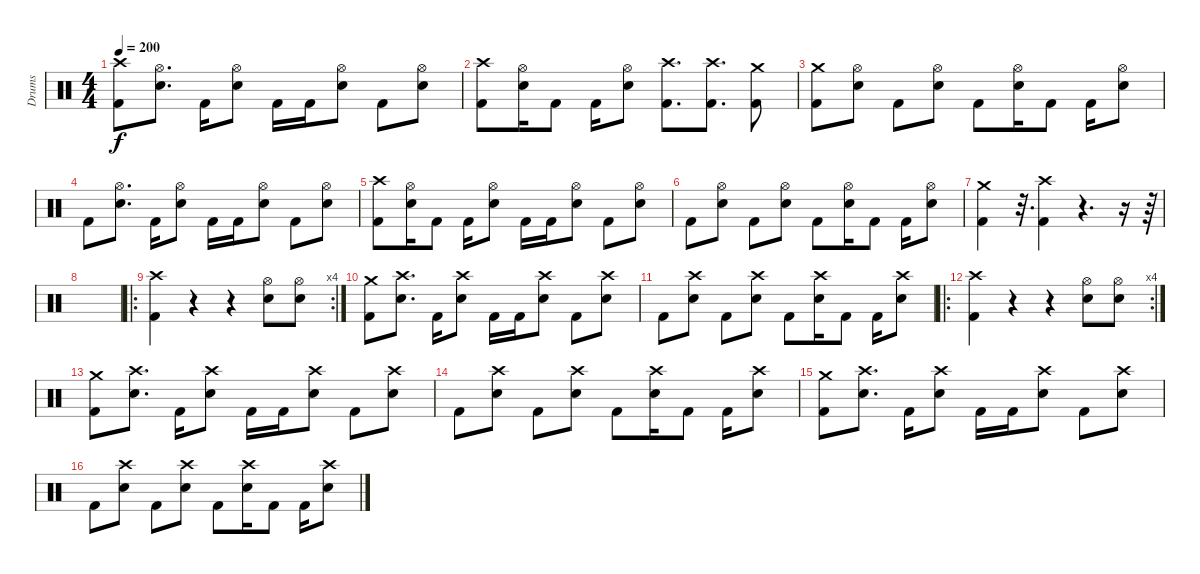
\track ("Drums" "Drums") {instrument percussion}
\staff {score}
\articulation defaults
\ts (4 4)
\tempo 200
\clef neutral
\ks c
("Crash high (hit)" "Kick (hit) 2").8{dy f} ("Hi-Hat (open)" "Electric Snare (hit)").8{d} "Kick (hit) 2".16 ("Hi-Hat (open)" "Electric Snare (hit)").8 "Kick (hit) 2".16 "Kick (hit) 2".16 ("Hi-Hat (open)" "Electric Snare (hit)").8 "Kick (hit) 2".8 ("Hi-Hat (open)" "Electric Snare (hit)").8 |
("Crash high (hit)" "Kick (hit) 2").8 ("Hi-Hat (open)" "Electric Snare (hit)").16 "Kick (hit) 2".8 "Kick (hit) 2".16 ("Hi-Hat (open)" "Electric Snare (hit)").8 ("Crash high (hit)" "Kick (hit) 2").8{d} ("Crash high (hit)" "Kick (hit) 2").8{d} ("Crash medium (hit)" "Kick (hit) 2").8 |
("Crash medium (hit)" "Kick (hit) 2").8 ("Hi-Hat (open)" "Electric Snare (hit)").8 "Kick (hit) 2".8 ("Hi-Hat (open)" "Electric Snare (hit)").8 "Kick (hit) 2".8 ("Hi-Hat (open)" "Electric Snare (hit)").16 "Kick (hit) 2".8 "Kick (hit) 2".16 ("Hi-Hat (open)" "Electric Snare (hit)").8 |
"Kick (hit) 2".8 ("Hi-Hat (open)" "Electric Snare (hit)").8{d} "Kick (hit) 2".16 ("Hi-Hat (open)" "Electric Snare (hit)").8 "Kick (hit) 2".16 "Kick (hit) 2".16 ("Hi-Hat (open)" "Electric Snare (hit)").8 "Kick (hit) 2".8 ("Hi-Hat (open)" "Electric Snare (hit)").8 |
("Crash high (hit)" "Kick (hit) 2").8 ("Hi-Hat (open)" "Electric Snare (hit)").16 "Kick (hit) 2".8 "Kick (hit) 2".16 ("Hi-Hat (open)" "Electric Snare (hit)").8 "Kick (hit) 2".16 "Kick (hit) 2".16 ("Hi-Hat (open)" "Electric Snare (hit)").8 "Kick (hit) 2".8 ("Hi-Hat (open)" "Electric Snare (hit)").8 |
"Kick (hit) 2".8 ("Hi-Hat (open)" "Electric Snare (hit)").8 "Kick (hit) 2".8 ("Hi-Hat (open)" "Electric Snare (hit)").8 "Kick (hit) 2".8 ("Hi-Hat (open)" "Electric Snare (hit)").16 "Kick (hit) 2".8 "Kick (hit) 2".16 ("Hi-Hat (open)" "Electric Snare (hit)").8 |
("Crash medium (hit)" "Kick (hit) 2").4 r.32{d} ("Crash high (hit)" "Kick (hit) 2").4 r.4{d} r.16 r.64 |
|
\ro
\rc 4
("Crash high (hit)" "Kick (hit) 2").4 r.4 r.4 ("Hi-Hat (open)" "Electric Snare (hit)").8 ("Hi-Hat (open)" "Electric Snare (hit)").8 |
("Crash medium (hit)" "Kick (hit) 2").8 ("Crash high (hit)" "Electric Snare (hit)").8{d} "Kick (hit) 2".16 ("Crash high (hit)" "Electric Snare (hit)").8 "Kick (hit) 2".16 "Kick (hit) 2".16 ("Crash high (hit)" "Electric Snare (hit)").8 "Kick (hit) 2".8 ("Crash high (hit)" "Electric Snare (hit)").8 |
"Kick (hit) 2".8 ("Crash high (hit)" "Electric Snare (hit)").8 "Kick (hit) 2".8 ("Crash high (hit)" "Electric Snare (hit)").8 "Kick (hit) 2".8 ("Crash high (hit)" "Electric Snare (hit)").16 "Kick (hit) 2".8 "Kick (hit) 2".16 ("Crash high (hit)" "Electric Snare (hit)").8 |
\ro
\rc 4
("Crash high (hit)" "Kick (hit) 2").4 r.4 r.4 ("Hi-Hat (open)" "Electric Snare (hit)").8 ("Hi-Hat (open)" "Electric Snare (hit)").8 |
("Crash medium (hit)" "Kick (hit) 2").8 ("Crash high (hit)" "Electric Snare (hit)").8{d} "Kick (hit) 2".16 ("Crash high (hit)" "Electric Snare (hit)").8 "Kick (hit) 2".16 "Kick (hit) 2".16 ("Crash high (hit)" "Electric Snare (hit)").8 "Kick (hit) 2".8 ("Crash high (hit)" "Electric Snare (hit)").8 |
"Kick (hit) 2".8 ("Crash high (hit)" "Electric Snare (hit)").8 "Kick (hit) 2".8 ("Crash high (hit)" "Electric Snare (hit)").8 "Kick (hit) 2".8 ("Crash high (hit)" "Electric Snare (hit)").16 "Kick (hit) 2".8 "Kick (hit) 2".16 ("Crash high (hit)" "Electric Snare (hit)").8 |
("Crash medium (hit)" "Kick (hit) 2").8 ("Crash high (hit)" "Electric Snare (hit)").8{d} "Kick (hit) 2".16 ("Crash high (hit)" "Electric Snare (hit)").8 "Kick (hit) 2".16 "Kick (hit) 2".16 ("Crash high (hit)" "Electric Snare (hit)").8 "Kick (hit) 2".8 ("Crash high (hit)" "Electric Snare (hit)").8 |
"Kick (hit) 2".8 ("Crash high (hit)" "Electric Snare (hit)").8 "Kick (hit) 2".8 ("Crash high (hit)" "Electric Snare (hit)").8 "Kick (hit) 2".8 ("Crash high (hit)" "Electric Snare (hit)").16 "Kick (hit) 2".8 "Kick (hit) 2".16 ("Crash high (hit)" "Electric Snare (hit)").8
